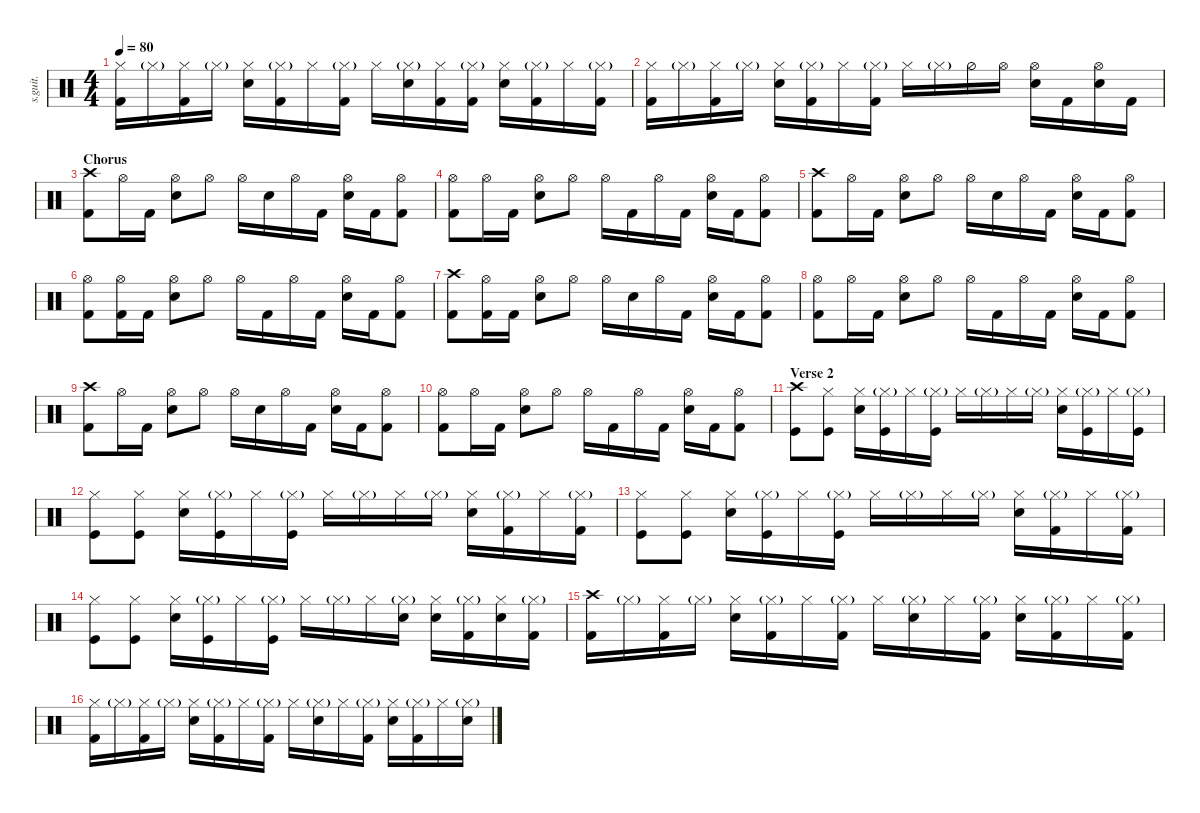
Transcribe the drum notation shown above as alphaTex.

\defaultSystemsLayout 4
\hideDynamics
\bracketExtendMode nobrackets
\track ("" "s.guit.") {instrument percussion}
\staff {score}
\articulation defaults
\ts (4 4)
\tempo 80
\clef neutral
\ks c
("Hi-Hat (closed)" "Kick (hit) 2").16{dy ff} "Hi-Hat (closed)"{g}.16 ("Hi-Hat (closed)" "Kick (hit) 2").16 "Hi-Hat (closed)"{g}.16 ("Hi-Hat (closed)" "Snare (hit) 2").16 ("Hi-Hat (closed)"{g} "Kick (hit) 2").16 "Hi-Hat (closed)".16 ("Hi-Hat (closed)"{g} "Kick (hit) 2").16 "Hi-Hat (closed)".16 ("Hi-Hat (closed)"{g} "Snare (hit) 2").16 ("Hi-Hat (closed)" "Kick (hit) 2").16 ("Hi-Hat (closed)"{g} "Kick (hit) 2").16 ("Hi-Hat (closed)" "Snare (hit) 2").16 ("Hi-Hat (closed)"{g} "Kick (hit) 2").16 "Hi-Hat (closed)".16 ("Hi-Hat (closed)"{g} "Kick (hit) 2").16 |
("Hi-Hat (closed)" "Kick (hit) 2").16 "Hi-Hat (closed)"{g}.16 ("Hi-Hat (closed)" "Kick (hit) 2").16 "Hi-Hat (closed)"{g}.16 ("Hi-Hat (closed)" "Snare (hit) 2").16 ("Hi-Hat (closed)"{g} "Kick (hit) 2").16 "Hi-Hat (closed)".16 ("Hi-Hat (closed)"{g} "Kick (hit) 2").16 "Hi-Hat (closed)".16 "Hi-Hat (closed)"{g}.16 "Hi-Hat (half)".16 "Hi-Hat (open)".16 ("Hi-Hat (open)" "Snare (hit) 2").16 "Kick (hit) 2".16 ("Hi-Hat (open)" "Snare (hit) 2").16 "Kick (hit) 2".16 |
\section ("" "Chorus")
("Crash high (hit)" "Kick (hit) 2").8 "Hi-Hat (open)".16 "Kick (hit) 2".16 ("Hi-Hat (open)" "Snare (hit) 2").8 "Hi-Hat (open)".8 "Hi-Hat (open)".16 "Snare (hit) 2".16 "Hi-Hat (open)".16 "Kick (hit) 2".16 ("Hi-Hat (open)" "Snare (hit) 2").16 "Kick (hit) 2".16 ("Hi-Hat (open)" "Kick (hit) 2").8 |
("Hi-Hat (open)" "Kick (hit) 2").8 "Hi-Hat (open)".16 "Kick (hit) 2".16 ("Hi-Hat (open)" "Snare (hit) 2").8 "Hi-Hat (open)".8 "Hi-Hat (open)".16 "Kick (hit) 2".16 "Hi-Hat (open)".16 "Kick (hit) 2".16 ("Hi-Hat (open)" "Snare (hit) 2").16 "Kick (hit) 2".16 ("Hi-Hat (open)" "Kick (hit) 2").8 |
("Crash high (hit)" "Kick (hit) 2").8 "Hi-Hat (open)".16 "Kick (hit) 2".16 ("Hi-Hat (open)" "Snare (hit) 2").8 "Hi-Hat (open)".8 "Hi-Hat (open)".16 "Snare (hit) 2".16 "Hi-Hat (open)".16 "Kick (hit) 2".16 ("Hi-Hat (open)" "Snare (hit) 2").16 "Kick (hit) 2".16 ("Hi-Hat (open)" "Kick (hit) 2").8 |
("Hi-Hat (open)" "Kick (hit) 2").8 ("Hi-Hat (open)" "Kick (hit) 2").16 "Kick (hit) 2".16 ("Hi-Hat (open)" "Snare (hit) 2").8 "Hi-Hat (open)".8 "Hi-Hat (open)".16 "Kick (hit) 2".16 "Hi-Hat (open)".16 "Kick (hit) 2".16 ("Hi-Hat (open)" "Snare (hit) 2").16 "Kick (hit) 2".16 ("Hi-Hat (open)" "Kick (hit) 2").8 |
("Crash high (hit)" "Kick (hit) 2").8 ("Hi-Hat (open)" "Kick (hit) 2").16 "Kick (hit) 2".16 ("Hi-Hat (open)" "Snare (hit) 2").8 "Hi-Hat (open)".8 "Hi-Hat (open)".16 "Snare (hit) 2".16 "Hi-Hat (open)".16 "Kick (hit) 2".16 ("Hi-Hat (open)" "Snare (hit) 2").16 "Kick (hit) 2".16 ("Hi-Hat (open)" "Kick (hit) 2").8 |
("Hi-Hat (open)" "Kick (hit) 2").8 "Hi-Hat (open)".16 "Kick (hit) 2".16 ("Hi-Hat (open)" "Snare (hit) 2").8 "Hi-Hat (open)".8 "Hi-Hat (open)".16 "Kick (hit) 2".16 "Hi-Hat (open)".16 "Kick (hit) 2".16 ("Hi-Hat (open)" "Snare (hit) 2").16 "Kick (hit) 2".16 ("Hi-Hat (open)" "Kick (hit) 2").8 |
("Crash high (hit)" "Kick (hit) 2").8 "Hi-Hat (open)".16 "Kick (hit) 2".16 ("Hi-Hat (open)" "Snare (hit) 2").8 "Hi-Hat (open)".8 "Hi-Hat (open)".16 "Snare (hit) 2".16 "Hi-Hat (open)".16 "Kick (hit) 2".16 ("Hi-Hat (open)" "Snare (hit) 2").16 "Kick (hit) 2".16 ("Hi-Hat (open)" "Kick (hit) 2").8 |
("Hi-Hat (open)" "Kick (hit) 2").8 "Hi-Hat (open)".16 "Kick (hit) 2".16 ("Hi-Hat (open)" "Snare (hit) 2").8 "Hi-Hat (open)".8 "Hi-Hat (open)".16 "Kick (hit) 2".16 "Hi-Hat (open)".16 "Kick (hit) 2".16 ("Hi-Hat (open)" "Snare (hit) 2").16 "Kick (hit) 2".16 ("Hi-Hat (open)" "Kick (hit) 2").8 |
\section ("" "Verse 2")
("Crash high (hit)" "Kick (hit)").8 ("Hi-Hat (closed)" "Kick (hit)").8 ("Hi-Hat (closed)" "Snare (hit) 2").16 ("Hi-Hat (closed)"{g} "Kick (hit)").16 "Hi-Hat (closed)".16 ("Hi-Hat (closed)"{g} "Kick (hit)").16 "Hi-Hat (closed)".16 "Hi-Hat (closed)"{g}.16 "Hi-Hat (closed)".16 "Hi-Hat (closed)"{g}.16 ("Hi-Hat (closed)" "Snare (hit) 2").16 ("Hi-Hat (closed)"{g} "Kick (hit)").16 "Hi-Hat (closed)".16 ("Hi-Hat (closed)"{g} "Kick (hit)").16 |
("Hi-Hat (closed)" "Kick (hit)").8 ("Hi-Hat (closed)" "Kick (hit)").8 ("Hi-Hat (closed)" "Snare (hit) 2").16 ("Hi-Hat (closed)"{g} "Kick (hit)").16 "Hi-Hat (closed)".16 ("Hi-Hat (closed)"{g} "Kick (hit)").16 "Hi-Hat (closed)".16 "Hi-Hat (closed)"{g}.16 "Hi-Hat (closed)".16 "Hi-Hat (closed)"{g}.16 ("Hi-Hat (closed)" "Snare (hit) 2").16 ("Hi-Hat (closed)"{g} "Kick (hit) 2").16 "Hi-Hat (closed)".16 ("Hi-Hat (closed)"{g} "Kick (hit) 2").16 |
("Hi-Hat (closed)" "Kick (hit)").8 ("Hi-Hat (closed)" "Kick (hit)").8 ("Hi-Hat (closed)" "Snare (hit) 2").16 ("Hi-Hat (closed)"{g} "Kick (hit)").16 "Hi-Hat (closed)".16 ("Hi-Hat (closed)"{g} "Kick (hit)").16 "Hi-Hat (closed)".16 "Hi-Hat (closed)"{g}.16 "Hi-Hat (closed)".16 "Hi-Hat (closed)"{g}.16 ("Hi-Hat (closed)" "Snare (hit) 2").16 ("Hi-Hat (closed)"{g} "Kick (hit) 2").16 "Hi-Hat (closed)".16 ("Hi-Hat (closed)"{g} "Kick (hit) 2").16 |
("Hi-Hat (closed)" "Kick (hit)").8 ("Hi-Hat (closed)" "Kick (hit)").8 ("Hi-Hat (closed)" "Snare (hit) 2").16 ("Hi-Hat (closed)"{g} "Kick (hit)").16 "Hi-Hat (closed)".16 ("Hi-Hat (closed)"{g} "Kick (hit)").16 "Hi-Hat (closed)".16 "Hi-Hat (closed)"{g}.16 "Hi-Hat (closed)".16 ("Hi-Hat (closed)"{g} "Snare (hit) 2").16 ("Hi-Hat (closed)" "Snare (hit) 2").16 ("Hi-Hat (closed)"{g} "Kick (hit) 2").16 ("Hi-Hat (closed)" "Snare (hit) 2").16 ("Hi-Hat (closed)"{g} "Kick (hit) 2").16 |
("Crash high (hit)" "Kick (hit) 2").16 "Hi-Hat (closed)"{g}.16 ("Hi-Hat (closed)" "Kick (hit) 2").16 "Hi-Hat (closed)"{g}.16 ("Hi-Hat (closed)" "Snare (hit) 2").16 ("Hi-Hat (closed)"{g} "Kick (hit) 2").16 "Hi-Hat (closed)".16 ("Hi-Hat (closed)"{g} "Kick (hit) 2").16 "Hi-Hat (closed)".16 ("Hi-Hat (closed)"{g} "Snare (hit) 2").16 "Hi-Hat (closed)".16 ("Hi-Hat (closed)"{g} "Kick (hit) 2").16 ("Hi-Hat (closed)" "Snare (hit) 2").16 ("Hi-Hat (closed)"{g} "Kick (hit) 2").16 "Hi-Hat (closed)".16 ("Hi-Hat (closed)"{g} "Kick (hit) 2").16 |
("Hi-Hat (closed)" "Kick (hit) 2").16 "Hi-Hat (closed)"{g}.16 ("Hi-Hat (closed)" "Kick (hit) 2").16 "Hi-Hat (closed)"{g}.16 ("Hi-Hat (closed)" "Snare (hit) 2").16 ("Hi-Hat (closed)"{g} "Kick (hit) 2").16 "Hi-Hat (closed)".16 ("Hi-Hat (closed)"{g} "Kick (hit) 2").16 "Hi-Hat (closed)".16 ("Hi-Hat (closed)"{g} "Snare (hit) 2").16 "Hi-Hat (closed)".16 ("Hi-Hat (closed)"{g} "Kick (hit) 2").16 ("Hi-Hat (closed)" "Snare (hit) 2").16 ("Hi-Hat (closed)"{g} "Kick (hit) 2").16 "Hi-Hat (closed)".16 ("Hi-Hat (closed)"{g} "Snare (hit) 2").16
